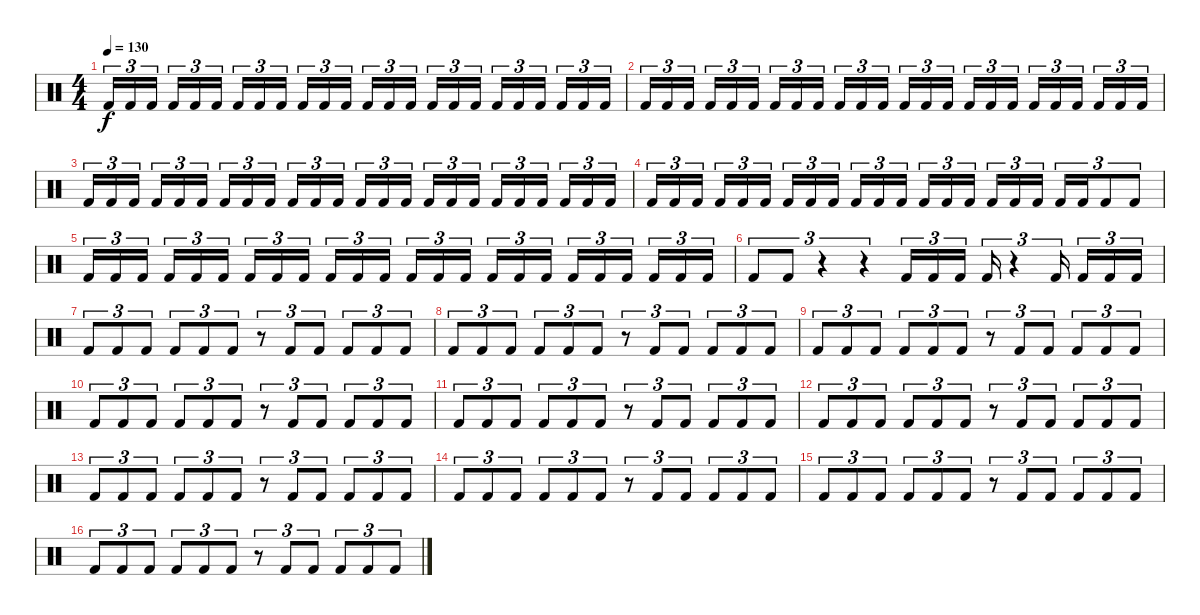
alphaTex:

\track "" {instrument percussion}
\staff {score}
\articulation defaults
\ts (4 4)
\tempo 130
\clef neutral
\ks c "Kick (hit) 2".16{tu (3 2) dy f} "Kick (hit) 2".16{tu (3 2)} "Kick (hit) 2".16{tu (3 2)} "Kick (hit) 2".16{tu (3 2)} "Kick (hit) 2".16{tu (3 2)} "Kick (hit) 2".16{tu (3 2)} "Kick (hit) 2".16{tu (3 2)} "Kick (hit) 2".16{tu (3 2)} "Kick (hit) 2".16{tu (3 2)} "Kick (hit) 2".16{tu (3 2)} "Kick (hit) 2".16{tu (3 2)} "Kick (hit) 2".16{tu (3 2)} "Kick (hit) 2".16{tu (3 2)} "Kick (hit) 2".16{tu (3 2)} "Kick (hit) 2".16{tu (3 2)} "Kick (hit) 2".16{tu (3 2)} "Kick (hit) 2".16{tu (3 2)} "Kick (hit) 2".16{tu (3 2)} "Kick (hit) 2".16{tu (3 2)} "Kick (hit) 2".16{tu (3 2)} "Kick (hit) 2".16{tu (3 2)} "Kick (hit) 2".16{tu (3 2)} "Kick (hit) 2".16{tu (3 2)} "Kick (hit) 2".16{tu (3 2)}
|
"Kick (hit) 2".16{tu (3 2)} "Kick (hit) 2".16{tu (3 2)} "Kick (hit) 2".16{tu (3 2)} "Kick (hit) 2".16{tu (3 2)} "Kick (hit) 2".16{tu (3 2)} "Kick (hit) 2".16{tu (3 2)} "Kick (hit) 2".16{tu (3 2)} "Kick (hit) 2".16{tu (3 2)} "Kick (hit) 2".16{tu (3 2)} "Kick (hit) 2".16{tu (3 2)} "Kick (hit) 2".16{tu (3 2)} "Kick (hit) 2".16{tu (3 2)} "Kick (hit) 2".16{tu (3 2)} "Kick (hit) 2".16{tu (3 2)} "Kick (hit) 2".16{tu (3 2)} "Kick (hit) 2".16{tu (3 2)} "Kick (hit) 2".16{tu (3 2)} "Kick (hit) 2".16{tu (3 2)} "Kick (hit) 2".16{tu (3 2)} "Kick (hit) 2".16{tu (3 2)} "Kick (hit) 2".16{tu (3 2)} "Kick (hit) 2".16{tu (3 2)} "Kick (hit) 2".16{tu (3 2)} "Kick (hit) 2".16{tu (3 2)} |
"Kick (hit) 2".16{tu (3 2)} "Kick (hit) 2".16{tu (3 2)} "Kick (hit) 2".16{tu (3 2)} "Kick (hit) 2".16{tu (3 2)} "Kick (hit) 2".16{tu (3 2)} "Kick (hit) 2".16{tu (3 2)} "Kick (hit) 2".16{tu (3 2)} "Kick (hit) 2".16{tu (3 2)} "Kick (hit) 2".16{tu (3 2)} "Kick (hit) 2".16{tu (3 2)} "Kick (hit) 2".16{tu (3 2)} "Kick (hit) 2".16{tu (3 2)} "Kick (hit) 2".16{tu (3 2)} "Kick (hit) 2".16{tu (3 2)} "Kick (hit) 2".16{tu (3 2)} "Kick (hit) 2".16{tu (3 2)} "Kick (hit) 2".16{tu (3 2)} "Kick (hit) 2".16{tu (3 2)} "Kick (hit) 2".16{tu (3 2)} "Kick (hit) 2".16{tu (3 2)} "Kick (hit) 2".16{tu (3 2)} "Kick (hit) 2".16{tu (3 2)} "Kick (hit) 2".16{tu (3 2)} "Kick (hit) 2".16{tu (3 2)} |
"Kick (hit) 2".16{tu (3 2)} "Kick (hit) 2".16{tu (3 2)} "Kick (hit) 2".16{tu (3 2)} "Kick (hit) 2".16{tu (3 2)} "Kick (hit) 2".16{tu (3 2)} "Kick (hit) 2".16{tu (3 2)} "Kick (hit) 2".16{tu (3 2)} "Kick (hit) 2".16{tu (3 2)} "Kick (hit) 2".16{tu (3 2)} "Kick (hit) 2".16{tu (3 2)} "Kick (hit) 2".16{tu (3 2)} "Kick (hit) 2".16{tu (3 2)} "Kick (hit) 2".16{tu (3 2)} "Kick (hit) 2".16{tu (3 2)} "Kick (hit) 2".16{tu (3 2)} "Kick (hit) 2".16{tu (3 2)} "Kick (hit) 2".16{tu (3 2)} "Kick (hit) 2".16{tu (3 2)} "Kick (hit) 2".16{tu (3 2)} "Kick (hit) 2".16{tu (3 2)} "Kick (hit) 2".8{tu (3 2)} "Kick (hit) 2".8{tu (3 2)} |
"Kick (hit) 2".16{tu (3 2)} "Kick (hit) 2".16{tu (3 2)} "Kick (hit) 2".16{tu (3 2)} "Kick (hit) 2".16{tu (3 2)} "Kick (hit) 2".16{tu (3 2)} "Kick (hit) 2".16{tu (3 2)} "Kick (hit) 2".16{tu (3 2)} "Kick (hit) 2".16{tu (3 2)} "Kick (hit) 2".16{tu (3 2)} "Kick (hit) 2".16{tu (3 2)} "Kick (hit) 2".16{tu (3 2)} "Kick (hit) 2".16{tu (3 2)} "Kick (hit) 2".16{tu (3 2)} "Kick (hit) 2".16{tu (3 2)} "Kick (hit) 2".16{tu (3 2)} "Kick (hit) 2".16{tu (3 2)} "Kick (hit) 2".16{tu (3 2)} "Kick (hit) 2".16{tu (3 2)} "Kick (hit) 2".16{tu (3 2)} "Kick (hit) 2".16{tu (3 2)} "Kick (hit) 2".16{tu (3 2)} "Kick (hit) 2".16{tu (3 2)} "Kick (hit) 2".16{tu (3 2)} "Kick (hit) 2".16{tu (3 2)} |
"Kick (hit) 2".8{tu (3 2)} "Kick (hit) 2".8{tu (3 2)} r.4{tu (3 2)} r.4{tu (3 2)} "Kick (hit) 2".16{tu (3 2)} "Kick (hit) 2".16{tu (3 2)} "Kick (hit) 2".16{tu (3 2)} "Kick (hit) 2".16{tu (3 2)} r.4{tu (3 2)} "Kick (hit) 2".16{tu (3 2)} "Kick (hit) 2".16{tu (3 2)} "Kick (hit) 2".16{tu (3 2)} "Kick (hit) 2".16{tu (3 2)} |
"Kick (hit) 2".8{tu (3 2)} "Kick (hit) 2".8{tu (3 2)} "Kick (hit) 2".8{tu (3 2)} "Kick (hit) 2".8{tu (3 2)} "Kick (hit) 2".8{tu (3 2)} "Kick (hit) 2".8{tu (3 2)} r.8{tu (3 2)} "Kick (hit) 2".8{tu (3 2)} "Kick (hit) 2".8{tu (3 2)} "Kick (hit) 2".8{tu (3 2)} "Kick (hit) 2".8{tu (3 2)} "Kick (hit) 2".8{tu (3 2)} |
"Kick (hit) 2".8{tu (3 2)} "Kick (hit) 2".8{tu (3 2)} "Kick (hit) 2".8{tu (3 2)} "Kick (hit) 2".8{tu (3 2)} "Kick (hit) 2".8{tu (3 2)} "Kick (hit) 2".8{tu (3 2)} r.8{tu (3 2)} "Kick (hit) 2".8{tu (3 2)} "Kick (hit) 2".8{tu (3 2)} "Kick (hit) 2".8{tu (3 2)} "Kick (hit) 2".8{tu (3 2)} "Kick (hit) 2".8{tu (3 2)} |
"Kick (hit) 2".8{tu (3 2)} "Kick (hit) 2".8{tu (3 2)} "Kick (hit) 2".8{tu (3 2)} "Kick (hit) 2".8{tu (3 2)} "Kick (hit) 2".8{tu (3 2)} "Kick (hit) 2".8{tu (3 2)} r.8{tu (3 2)} "Kick (hit) 2".8{tu (3 2)} "Kick (hit) 2".8{tu (3 2)} "Kick (hit) 2".8{tu (3 2)} "Kick (hit) 2".8{tu (3 2)} "Kick (hit) 2".8{tu (3 2)} |
"Kick (hit) 2".8{tu (3 2)} "Kick (hit) 2".8{tu (3 2)} "Kick (hit) 2".8{tu (3 2)} "Kick (hit) 2".8{tu (3 2)} "Kick (hit) 2".8{tu (3 2)} "Kick (hit) 2".8{tu (3 2)} r.8{tu (3 2)} "Kick (hit) 2".8{tu (3 2)} "Kick (hit) 2".8{tu (3 2)} "Kick (hit) 2".8{tu (3 2)} "Kick (hit) 2".8{tu (3 2)} "Kick (hit) 2".8{tu (3 2)} |
"Kick (hit) 2".8{tu (3 2)} "Kick (hit) 2".8{tu (3 2)} "Kick (hit) 2".8{tu (3 2)} "Kick (hit) 2".8{tu (3 2)} "Kick (hit) 2".8{tu (3 2)} "Kick (hit) 2".8{tu (3 2)} r.8{tu (3 2)} "Kick (hit) 2".8{tu (3 2)} "Kick (hit) 2".8{tu (3 2)} "Kick (hit) 2".8{tu (3 2)} "Kick (hit) 2".8{tu (3 2)} "Kick (hit) 2".8{tu (3 2)} |
"Kick (hit) 2".8{tu (3 2)} "Kick (hit) 2".8{tu (3 2)} "Kick (hit) 2".8{tu (3 2)} "Kick (hit) 2".8{tu (3 2)} "Kick (hit) 2".8{tu (3 2)} "Kick (hit) 2".8{tu (3 2)} r.8{tu (3 2)} "Kick (hit) 2".8{tu (3 2)} "Kick (hit) 2".8{tu (3 2)} "Kick (hit) 2".8{tu (3 2)} "Kick (hit) 2".8{tu (3 2)} "Kick (hit) 2".8{tu (3 2)} |
"Kick (hit) 2".8{tu (3 2)} "Kick (hit) 2".8{tu (3 2)} "Kick (hit) 2".8{tu (3 2)} "Kick (hit) 2".8{tu (3 2)} "Kick (hit) 2".8{tu (3 2)} "Kick (hit) 2".8{tu (3 2)} r.8{tu (3 2)} "Kick (hit) 2".8{tu (3 2)} "Kick (hit) 2".8{tu (3 2)} "Kick (hit) 2".8{tu (3 2)} "Kick (hit) 2".8{tu (3 2)} "Kick (hit) 2".8{tu (3 2)} |
"Kick (hit) 2".8{tu (3 2)} "Kick (hit) 2".8{tu (3 2)} "Kick (hit) 2".8{tu (3 2)} "Kick (hit) 2".8{tu (3 2)} "Kick (hit) 2".8{tu (3 2)} "Kick (hit) 2".8{tu (3 2)} r.8{tu (3 2)} "Kick (hit) 2".8{tu (3 2)} "Kick (hit) 2".8{tu (3 2)} "Kick (hit) 2".8{tu (3 2)} "Kick (hit) 2".8{tu (3 2)} "Kick (hit) 2".8{tu (3 2)} |
"Kick (hit) 2".8{tu (3 2)} "Kick (hit) 2".8{tu (3 2)} "Kick (hit) 2".8{tu (3 2)} "Kick (hit) 2".8{tu (3 2)} "Kick (hit) 2".8{tu (3 2)} "Kick (hit) 2".8{tu (3 2)} r.8{tu (3 2)} "Kick (hit) 2".8{tu (3 2)} "Kick (hit) 2".8{tu (3 2)} "Kick (hit) 2".8{tu (3 2)} "Kick (hit) 2".8{tu (3 2)} "Kick (hit) 2".8{tu (3 2)} |
"Kick (hit) 2".8{tu (3 2)} "Kick (hit) 2".8{tu (3 2)} "Kick (hit) 2".8{tu (3 2)} "Kick (hit) 2".8{tu (3 2)} "Kick (hit) 2".8{tu (3 2)} "Kick (hit) 2".8{tu (3 2)} r.8{tu (3 2)} "Kick (hit) 2".8{tu (3 2)} "Kick (hit) 2".8{tu (3 2)} "Kick (hit) 2".8{tu (3 2)} "Kick (hit) 2".8{tu (3 2)} "Kick (hit) 2".8{tu (3 2)}
